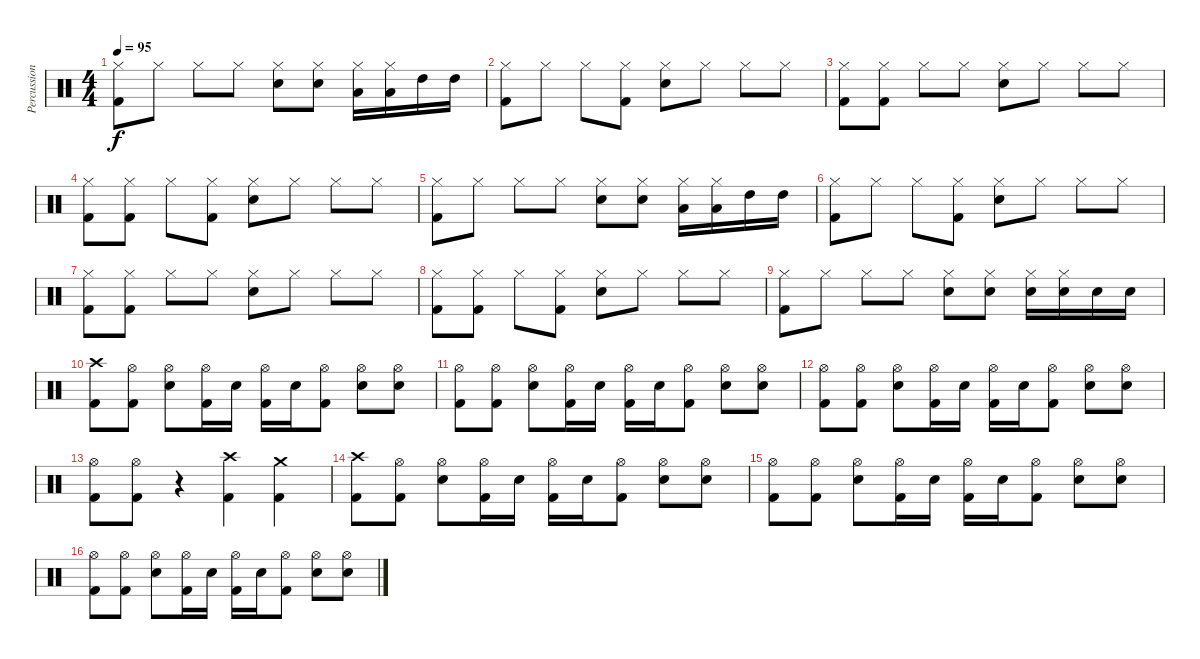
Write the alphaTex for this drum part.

\track ("Percussion" "Percussion") {instrument percussion}
\staff {score}
\articulation defaults
\ts (4 4)
\tempo 95
\clef neutral
\ks c
("Kick (hit) 2" "Hi-Hat (closed)").8{dy f} "Hi-Hat (closed)".8 "Hi-Hat (closed)".8 "Hi-Hat (closed)".8 ("Snare (hit) 2" "Hi-Hat (closed)").8 ("Snare (hit) 2" "Hi-Hat (closed)").8 ("Low Tom (hit)" "Hi-Hat (closed)").16 ("Low Tom (hit)" "Hi-Hat (closed)").16 "High Tom (hit)".16 "High Tom (hit)".16 |
("Kick (hit) 2" "Hi-Hat (closed)").8 "Hi-Hat (closed)".8 "Hi-Hat (closed)".8 ("Kick (hit) 2" "Hi-Hat (closed)").8 ("Snare (hit) 2" "Hi-Hat (closed)").8 "Hi-Hat (closed)".8 "Hi-Hat (closed)".8 "Hi-Hat (closed)".8 |
("Kick (hit) 2" "Hi-Hat (closed)").8 ("Kick (hit) 2" "Hi-Hat (closed)").8 "Hi-Hat (closed)".8 "Hi-Hat (closed)".8 ("Snare (hit) 2" "Hi-Hat (closed)").8 "Hi-Hat (closed)".8 "Hi-Hat (closed)".8 "Hi-Hat (closed)".8 |
("Kick (hit) 2" "Hi-Hat (closed)").8 ("Kick (hit) 2" "Hi-Hat (closed)").8 "Hi-Hat (closed)".8 ("Kick (hit) 2" "Hi-Hat (closed)").8 ("Snare (hit) 2" "Hi-Hat (closed)").8 "Hi-Hat (closed)".8 "Hi-Hat (closed)".8 "Hi-Hat (closed)".8 |
("Kick (hit) 2" "Hi-Hat (closed)").8 "Hi-Hat (closed)".8 "Hi-Hat (closed)".8 "Hi-Hat (closed)".8 ("Snare (hit) 2" "Hi-Hat (closed)").8 ("Snare (hit) 2" "Hi-Hat (closed)").8 ("Low Tom (hit)" "Hi-Hat (closed)").16 ("Low Tom (hit)" "Hi-Hat (closed)").16 "High Tom (hit)".16 "High Tom (hit)".16 |
("Kick (hit) 2" "Hi-Hat (closed)").8 "Hi-Hat (closed)".8 "Hi-Hat (closed)".8 ("Kick (hit) 2" "Hi-Hat (closed)").8 ("Snare (hit) 2" "Hi-Hat (closed)").8 "Hi-Hat (closed)".8 "Hi-Hat (closed)".8 "Hi-Hat (closed)".8 |
("Kick (hit) 2" "Hi-Hat (closed)").8 ("Kick (hit) 2" "Hi-Hat (closed)").8 "Hi-Hat (closed)".8 "Hi-Hat (closed)".8 ("Snare (hit) 2" "Hi-Hat (closed)").8 "Hi-Hat (closed)".8 "Hi-Hat (closed)".8 "Hi-Hat (closed)".8 |
("Kick (hit) 2" "Hi-Hat (closed)").8 ("Kick (hit) 2" "Hi-Hat (closed)").8 "Hi-Hat (closed)".8 ("Kick (hit) 2" "Hi-Hat (closed)").8 ("Snare (hit) 2" "Hi-Hat (closed)").8 "Hi-Hat (closed)".8 "Hi-Hat (closed)".8 "Hi-Hat (closed)".8 |
("Kick (hit) 2" "Hi-Hat (closed)").8 "Hi-Hat (closed)".8 "Hi-Hat (closed)".8 "Hi-Hat (closed)".8 ("Snare (hit) 2" "Hi-Hat (closed)").8 ("Snare (hit) 2" "Hi-Hat (closed)").8 ("Snare (hit) 2" "Hi-Hat (closed)").16 ("Snare (hit) 2" "Hi-Hat (closed)").16 "Snare (hit) 2".16 "Snare (hit) 2".16 |
("Kick (hit) 2" "Crash high (hit)").8 ("Kick (hit) 2" "Hi-Hat (open)").8 ("Snare (hit) 2" "Hi-Hat (open)").8 ("Kick (hit) 2" "Hi-Hat (open)").16 "Snare (hit) 2".16 ("Kick (hit) 2" "Hi-Hat (open)").16 "Snare (hit) 2".16 ("Kick (hit) 2" "Hi-Hat (open)").8 ("Snare (hit) 2" "Hi-Hat (open)").8 ("Snare (hit) 2" "Hi-Hat (open)").8 |
("Kick (hit) 2" "Hi-Hat (open)").8 ("Kick (hit) 2" "Hi-Hat (open)").8 ("Snare (hit) 2" "Hi-Hat (open)").8 ("Kick (hit) 2" "Hi-Hat (open)").16 "Snare (hit) 2".16 ("Kick (hit) 2" "Hi-Hat (open)").16 "Snare (hit) 2".16 ("Kick (hit) 2" "Hi-Hat (open)").8 ("Snare (hit) 2" "Hi-Hat (open)").8 ("Snare (hit) 2" "Hi-Hat (open)").8 |
("Kick (hit) 2" "Hi-Hat (open)").8 ("Kick (hit) 2" "Hi-Hat (open)").8 ("Snare (hit) 2" "Hi-Hat (open)").8 ("Kick (hit) 2" "Hi-Hat (open)").16 "Snare (hit) 2".16 ("Kick (hit) 2" "Hi-Hat (open)").16 "Snare (hit) 2".16 ("Kick (hit) 2" "Hi-Hat (open)").8 ("Snare (hit) 2" "Hi-Hat (open)").8 ("Snare (hit) 2" "Hi-Hat (open)").8 |
("Kick (hit) 2" "Hi-Hat (open)").8 ("Kick (hit) 2" "Hi-Hat (open)").8 r.4 ("Kick (hit) 2" "Crash high (hit)").4 ("Kick (hit) 2" "Crash medium (hit)").4 |
("Kick (hit) 2" "Crash high (hit)").8 ("Kick (hit) 2" "Hi-Hat (open)").8 ("Snare (hit) 2" "Hi-Hat (open)").8 ("Kick (hit) 2" "Hi-Hat (open)").16 "Snare (hit) 2".16 ("Kick (hit) 2" "Hi-Hat (open)").16 "Snare (hit) 2".16 ("Kick (hit) 2" "Hi-Hat (open)").8 ("Snare (hit) 2" "Hi-Hat (open)").8 ("Snare (hit) 2" "Hi-Hat (open)").8 |
("Kick (hit) 2" "Hi-Hat (open)").8 ("Kick (hit) 2" "Hi-Hat (open)").8 ("Snare (hit) 2" "Hi-Hat (open)").8 ("Kick (hit) 2" "Hi-Hat (open)").16 "Snare (hit) 2".16 ("Kick (hit) 2" "Hi-Hat (open)").16 "Snare (hit) 2".16 ("Kick (hit) 2" "Hi-Hat (open)").8 ("Snare (hit) 2" "Hi-Hat (open)").8 ("Snare (hit) 2" "Hi-Hat (open)").8 |
("Kick (hit) 2" "Hi-Hat (open)").8 ("Kick (hit) 2" "Hi-Hat (open)").8 ("Snare (hit) 2" "Hi-Hat (open)").8 ("Kick (hit) 2" "Hi-Hat (open)").16 "Snare (hit) 2".16 ("Kick (hit) 2" "Hi-Hat (open)").16 "Snare (hit) 2".16 ("Kick (hit) 2" "Hi-Hat (open)").8 ("Snare (hit) 2" "Hi-Hat (open)").8 ("Snare (hit) 2" "Hi-Hat (open)").8
